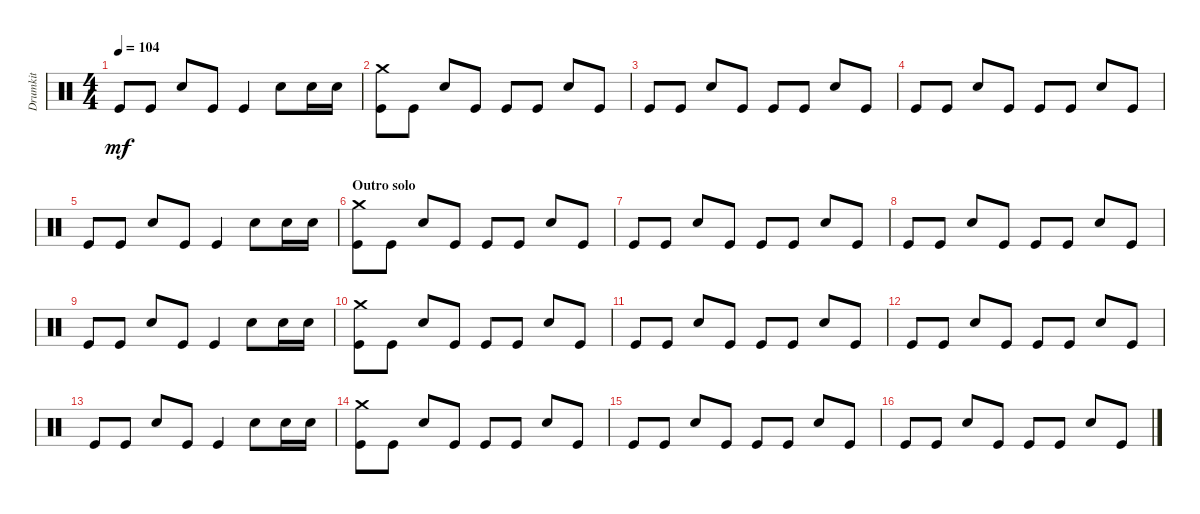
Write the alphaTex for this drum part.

\track ("Drumkit" "Drumkit") {instrument percussion}
\staff {score}
\articulation defaults
\ts (4 4)
\tempo 104
\clef neutral
\ks c "Kick (hit)".8{dy mf} "Kick (hit)".8 "Snare (hit) 2".8 "Kick (hit)".8 "Kick (hit)".4 "Snare (hit) 2".8 "Snare (hit) 2".16 "Snare (hit) 2".16
|
("Crash medium (hit)" "Kick (hit)").8 "Kick (hit)".8 "Snare (hit) 2".8 "Kick (hit)".8 "Kick (hit)".8 "Kick (hit)".8 "Snare (hit) 2".8 "Kick (hit)".8 |
"Kick (hit)".8 "Kick (hit)".8 "Snare (hit) 2".8 "Kick (hit)".8 "Kick (hit)".8 "Kick (hit)".8 "Snare (hit) 2".8 "Kick (hit)".8 |
"Kick (hit)".8 "Kick (hit)".8 "Snare (hit) 2".8 "Kick (hit)".8 "Kick (hit)".8 "Kick (hit)".8 "Snare (hit) 2".8 "Kick (hit)".8 |
"Kick (hit)".8 "Kick (hit)".8 "Snare (hit) 2".8 "Kick (hit)".8 "Kick (hit)".4 "Snare (hit) 2".8 "Snare (hit) 2".16 "Snare (hit) 2".16 |
\section ("" "Outro solo")
("Crash medium (hit)" "Kick (hit)").8 "Kick (hit)".8 "Snare (hit) 2".8 "Kick (hit)".8 "Kick (hit)".8 "Kick (hit)".8 "Snare (hit) 2".8 "Kick (hit)".8 |
"Kick (hit)".8 "Kick (hit)".8 "Snare (hit) 2".8 "Kick (hit)".8 "Kick (hit)".8 "Kick (hit)".8 "Snare (hit) 2".8 "Kick (hit)".8 |
"Kick (hit)".8 "Kick (hit)".8 "Snare (hit) 2".8 "Kick (hit)".8 "Kick (hit)".8 "Kick (hit)".8 "Snare (hit) 2".8 "Kick (hit)".8 |
"Kick (hit)".8 "Kick (hit)".8 "Snare (hit) 2".8 "Kick (hit)".8 "Kick (hit)".4 "Snare (hit) 2".8 "Snare (hit) 2".16 "Snare (hit) 2".16 |
("Crash medium (hit)" "Kick (hit)").8 "Kick (hit)".8 "Snare (hit) 2".8 "Kick (hit)".8 "Kick (hit)".8 "Kick (hit)".8 "Snare (hit) 2".8 "Kick (hit)".8 |
"Kick (hit)".8 "Kick (hit)".8 "Snare (hit) 2".8 "Kick (hit)".8 "Kick (hit)".8 "Kick (hit)".8 "Snare (hit) 2".8 "Kick (hit)".8 |
"Kick (hit)".8 "Kick (hit)".8 "Snare (hit) 2".8 "Kick (hit)".8 "Kick (hit)".8 "Kick (hit)".8 "Snare (hit) 2".8 "Kick (hit)".8 |
"Kick (hit)".8 "Kick (hit)".8 "Snare (hit) 2".8 "Kick (hit)".8 "Kick (hit)".4 "Snare (hit) 2".8 "Snare (hit) 2".16 "Snare (hit) 2".16 |
("Crash medium (hit)" "Kick (hit)").8 "Kick (hit)".8 "Snare (hit) 2".8 "Kick (hit)".8 "Kick (hit)".8 "Kick (hit)".8 "Snare (hit) 2".8 "Kick (hit)".8 |
"Kick (hit)".8 "Kick (hit)".8 "Snare (hit) 2".8 "Kick (hit)".8 "Kick (hit)".8 "Kick (hit)".8 "Snare (hit) 2".8 "Kick (hit)".8 |
"Kick (hit)".8 "Kick (hit)".8 "Snare (hit) 2".8 "Kick (hit)".8 "Kick (hit)".8 "Kick (hit)".8 "Snare (hit) 2".8 "Kick (hit)".8
